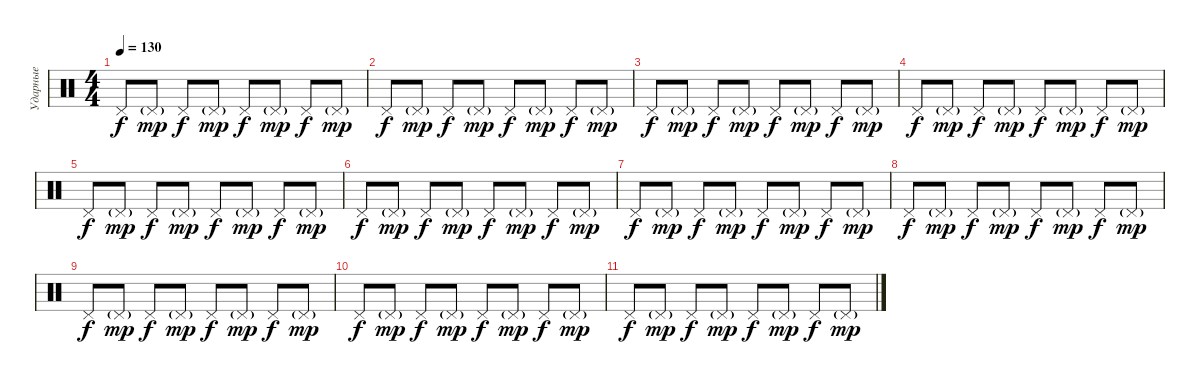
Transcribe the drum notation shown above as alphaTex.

\track ("Ударные" "Ударные") {instrument percussion}
\staff {score}
\articulation defaults
\ts (4 4)
\tempo 130
\clef neutral
\ks c "Pedal Hi-Hat (hit)".8{dy f} "Pedal Hi-Hat (hit)"{g}.8{dy mp} "Pedal Hi-Hat (hit)".8{dy f} "Pedal Hi-Hat (hit)"{g}.8{dy mp} "Pedal Hi-Hat (hit)".8{dy f} "Pedal Hi-Hat (hit)"{g}.8{dy mp} "Pedal Hi-Hat (hit)".8{dy f} "Pedal Hi-Hat (hit)"{g}.8{dy mp}
|
"Pedal Hi-Hat (hit)".8{dy f} "Pedal Hi-Hat (hit)"{g}.8{dy mp} "Pedal Hi-Hat (hit)".8{dy f} "Pedal Hi-Hat (hit)"{g}.8{dy mp} "Pedal Hi-Hat (hit)".8{dy f} "Pedal Hi-Hat (hit)"{g}.8{dy mp} "Pedal Hi-Hat (hit)".8{dy f} "Pedal Hi-Hat (hit)"{g}.8{dy mp} |
"Pedal Hi-Hat (hit)".8{dy f} "Pedal Hi-Hat (hit)"{g}.8{dy mp} "Pedal Hi-Hat (hit)".8{dy f} "Pedal Hi-Hat (hit)"{g}.8{dy mp} "Pedal Hi-Hat (hit)".8{dy f} "Pedal Hi-Hat (hit)"{g}.8{dy mp} "Pedal Hi-Hat (hit)".8{dy f} "Pedal Hi-Hat (hit)"{g}.8{dy mp} |
"Pedal Hi-Hat (hit)".8{dy f} "Pedal Hi-Hat (hit)"{g}.8{dy mp} "Pedal Hi-Hat (hit)".8{dy f} "Pedal Hi-Hat (hit)"{g}.8{dy mp} "Pedal Hi-Hat (hit)".8{dy f} "Pedal Hi-Hat (hit)"{g}.8{dy mp} "Pedal Hi-Hat (hit)".8{dy f} "Pedal Hi-Hat (hit)"{g}.8{dy mp} |
"Pedal Hi-Hat (hit)".8{dy f} "Pedal Hi-Hat (hit)"{g}.8{dy mp} "Pedal Hi-Hat (hit)".8{dy f} "Pedal Hi-Hat (hit)"{g}.8{dy mp} "Pedal Hi-Hat (hit)".8{dy f} "Pedal Hi-Hat (hit)"{g}.8{dy mp} "Pedal Hi-Hat (hit)".8{dy f} "Pedal Hi-Hat (hit)"{g}.8{dy mp} |
"Pedal Hi-Hat (hit)".8{dy f} "Pedal Hi-Hat (hit)"{g}.8{dy mp} "Pedal Hi-Hat (hit)".8{dy f} "Pedal Hi-Hat (hit)"{g}.8{dy mp} "Pedal Hi-Hat (hit)".8{dy f} "Pedal Hi-Hat (hit)"{g}.8{dy mp} "Pedal Hi-Hat (hit)".8{dy f} "Pedal Hi-Hat (hit)"{g}.8{dy mp} |
"Pedal Hi-Hat (hit)".8{dy f} "Pedal Hi-Hat (hit)"{g}.8{dy mp} "Pedal Hi-Hat (hit)".8{dy f} "Pedal Hi-Hat (hit)"{g}.8{dy mp} "Pedal Hi-Hat (hit)".8{dy f} "Pedal Hi-Hat (hit)"{g}.8{dy mp} "Pedal Hi-Hat (hit)".8{dy f} "Pedal Hi-Hat (hit)"{g}.8{dy mp} |
"Pedal Hi-Hat (hit)".8{dy f} "Pedal Hi-Hat (hit)"{g}.8{dy mp} "Pedal Hi-Hat (hit)".8{dy f} "Pedal Hi-Hat (hit)"{g}.8{dy mp} "Pedal Hi-Hat (hit)".8{dy f} "Pedal Hi-Hat (hit)"{g}.8{dy mp} "Pedal Hi-Hat (hit)".8{dy f} "Pedal Hi-Hat (hit)"{g}.8{dy mp} |
"Pedal Hi-Hat (hit)".8{dy f} "Pedal Hi-Hat (hit)"{g}.8{dy mp} "Pedal Hi-Hat (hit)".8{dy f} "Pedal Hi-Hat (hit)"{g}.8{dy mp} "Pedal Hi-Hat (hit)".8{dy f} "Pedal Hi-Hat (hit)"{g}.8{dy mp} "Pedal Hi-Hat (hit)".8{dy f} "Pedal Hi-Hat (hit)"{g}.8{dy mp} |
"Pedal Hi-Hat (hit)".8{dy f} "Pedal Hi-Hat (hit)"{g}.8{dy mp} "Pedal Hi-Hat (hit)".8{dy f} "Pedal Hi-Hat (hit)"{g}.8{dy mp} "Pedal Hi-Hat (hit)".8{dy f} "Pedal Hi-Hat (hit)"{g}.8{dy mp} "Pedal Hi-Hat (hit)".8{dy f} "Pedal Hi-Hat (hit)"{g}.8{dy mp} |
"Pedal Hi-Hat (hit)".8{dy f} "Pedal Hi-Hat (hit)"{g}.8{dy mp} "Pedal Hi-Hat (hit)".8{dy f} "Pedal Hi-Hat (hit)"{g}.8{dy mp} "Pedal Hi-Hat (hit)".8{dy f} "Pedal Hi-Hat (hit)"{g}.8{dy mp} "Pedal Hi-Hat (hit)".8{dy f} "Pedal Hi-Hat (hit)"{g}.8{dy mp}
